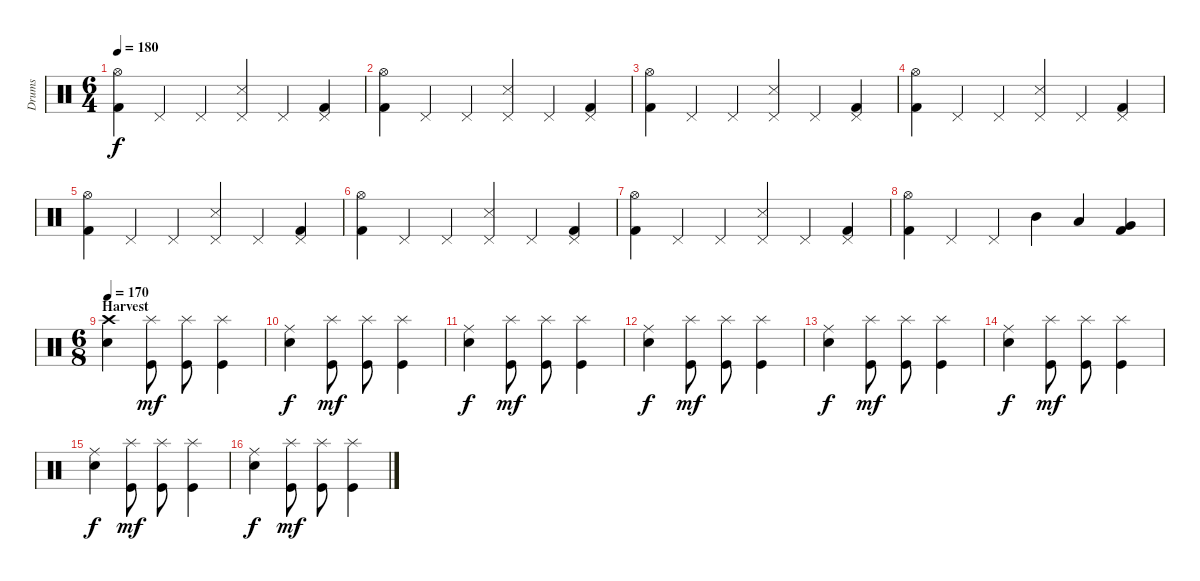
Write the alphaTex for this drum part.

\track ("Drums" "Drums") {instrument percussion}
\staff {score}
\articulation defaults
\ts (6 4)
\tempo 180
\clef neutral
\ks c
("Hi-Hat (open)" "Kick (hit) 2").4{dy f} "Pedal Hi-Hat (hit)".4 "Pedal Hi-Hat (hit)".4 ("Pedal Hi-Hat (hit)" "Snare (side stick) 3").4 "Pedal Hi-Hat (hit)".4 ("Pedal Hi-Hat (hit)" "Kick (hit) 2").4 |
("Hi-Hat (open)" "Kick (hit) 2").4 "Pedal Hi-Hat (hit)".4 "Pedal Hi-Hat (hit)".4 ("Pedal Hi-Hat (hit)" "Snare (side stick) 3").4 "Pedal Hi-Hat (hit)".4 ("Pedal Hi-Hat (hit)" "Kick (hit) 2").4 |
("Hi-Hat (open)" "Kick (hit) 2").4 "Pedal Hi-Hat (hit)".4 "Pedal Hi-Hat (hit)".4 ("Pedal Hi-Hat (hit)" "Snare (side stick) 3").4 "Pedal Hi-Hat (hit)".4 ("Pedal Hi-Hat (hit)" "Kick (hit) 2").4 |
("Hi-Hat (open)" "Kick (hit) 2").4 "Pedal Hi-Hat (hit)".4 "Pedal Hi-Hat (hit)".4 ("Pedal Hi-Hat (hit)" "Snare (side stick) 3").4 "Pedal Hi-Hat (hit)".4 ("Pedal Hi-Hat (hit)" "Kick (hit) 2").4 |
("Hi-Hat (open)" "Kick (hit) 2").4 "Pedal Hi-Hat (hit)".4 "Pedal Hi-Hat (hit)".4 ("Pedal Hi-Hat (hit)" "Snare (side stick) 3").4 "Pedal Hi-Hat (hit)".4 ("Pedal Hi-Hat (hit)" "Kick (hit) 2").4 |
("Hi-Hat (open)" "Kick (hit) 2").4 "Pedal Hi-Hat (hit)".4 "Pedal Hi-Hat (hit)".4 ("Pedal Hi-Hat (hit)" "Snare (side stick) 3").4 "Pedal Hi-Hat (hit)".4 ("Pedal Hi-Hat (hit)" "Kick (hit) 2").4 |
("Hi-Hat (open)" "Kick (hit) 2").4 "Pedal Hi-Hat (hit)".4 "Pedal Hi-Hat (hit)".4 ("Pedal Hi-Hat (hit)" "Snare (side stick) 3").4 "Pedal Hi-Hat (hit)".4 ("Pedal Hi-Hat (hit)" "Kick (hit) 2").4 |
("Hi-Hat (open)" "Kick (hit) 2").4 "Pedal Hi-Hat (hit)".4 "Pedal Hi-Hat (hit)".4 "Mid Tom (hit)".4 "Low Tom (hit)".4 ("Very Low Tom (hit)" "Kick (hit) 2").4 |
\ts (6 8)
\section ("" "Harvest")
\tempo 170
("Snare (hit) 2" "Crash high (hit)").4 ("Kick (hit)" "Splash (hit)").8{dy mf} ("Kick (hit)" "Splash (hit)").8 ("Kick (hit)" "Splash (hit)").4 |
("Snare (hit) 2" "Ride (middle)").4{dy f} ("Kick (hit)" "Splash (hit)").8{dy mf} ("Kick (hit)" "Splash (hit)").8 ("Kick (hit)" "Splash (hit)").4 |
("Snare (hit) 2" "Ride (middle)").4{dy f} ("Kick (hit)" "Splash (hit)").8{dy mf} ("Kick (hit)" "Splash (hit)").8 ("Kick (hit)" "Splash (hit)").4 |
("Snare (hit) 2" "Ride (middle)").4{dy f} ("Kick (hit)" "Splash (hit)").8{dy mf} ("Kick (hit)" "Splash (hit)").8 ("Kick (hit)" "Splash (hit)").4 |
("Snare (hit) 2" "Ride (middle)").4{dy f} ("Kick (hit)" "Splash (hit)").8{dy mf} ("Kick (hit)" "Splash (hit)").8 ("Kick (hit)" "Splash (hit)").4 |
("Snare (hit) 2" "Ride (middle)").4{dy f} ("Kick (hit)" "Splash (hit)").8{dy mf} ("Kick (hit)" "Splash (hit)").8 ("Kick (hit)" "Splash (hit)").4 |
("Snare (hit) 2" "Ride (middle)").4{dy f} ("Kick (hit)" "Splash (hit)").8{dy mf} ("Kick (hit)" "Splash (hit)").8 ("Kick (hit)" "Splash (hit)").4 |
("Snare (hit) 2" "Ride (middle)").4{dy f} ("Kick (hit)" "Splash (hit)").8{dy mf} ("Kick (hit)" "Splash (hit)").8 ("Kick (hit)" "Splash (hit)").4
